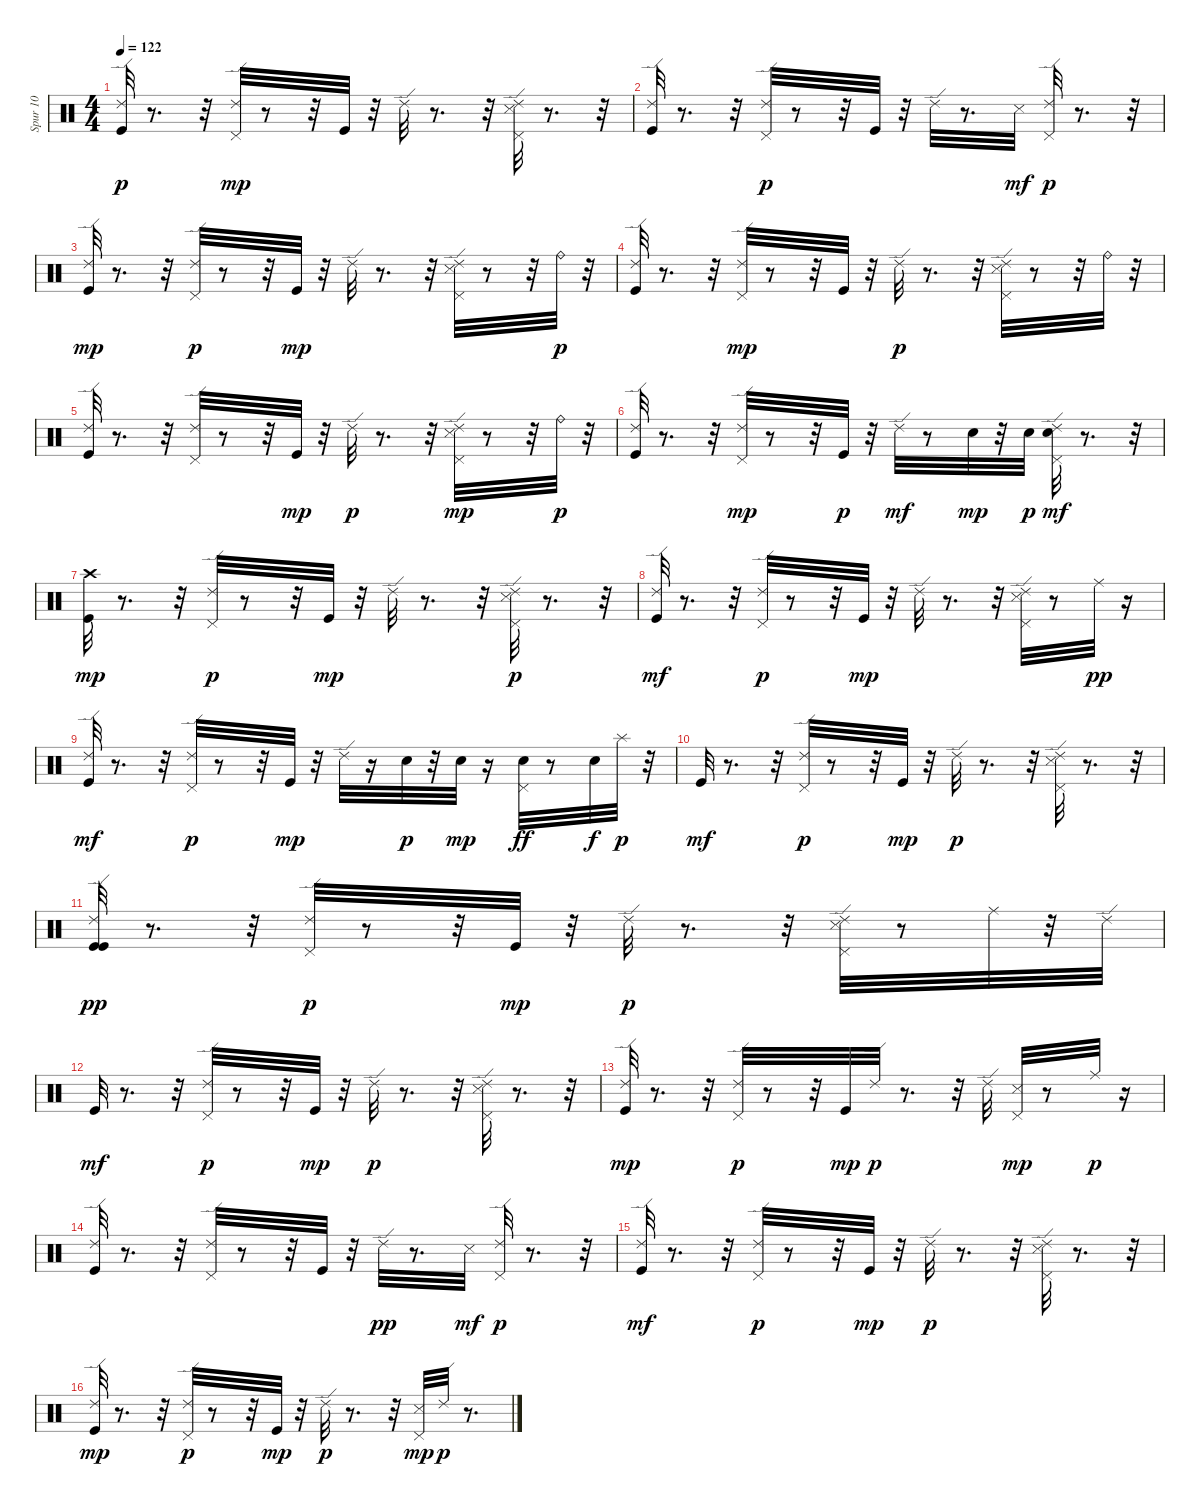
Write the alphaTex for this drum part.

\track ("Spur 10" "Spur 10") {instrument percussion}
\staff {score}
\articulation defaults
\ts (4 4)
\tempo 122
\clef neutral
\ks c
("Kick (hit)" "Ride (edge) 2").32{dy p} r.8{d} r.32 ("Pedal Hi-Hat (hit)" "Ride (edge) 2").32{dy mp} r.8 r.32 "Kick (hit)".32 r.32 "Ride (edge) 2".32 r.8{d} r.32 ("Ride (edge) 2" "Pedal Hi-Hat (hit)" "Snare (side stick) 3").32 r.8{d} r.32 |
("Kick (hit)" "Ride (edge) 2").32 r.8{d} r.32 ("Pedal Hi-Hat (hit)" "Ride (edge) 2").32{dy p} r.8 r.32 "Kick (hit)".32 r.32 "Ride (edge) 2".32 r.8{d} "Snare (side stick) 3".32{dy mf} ("Pedal Hi-Hat (hit)" "Ride (edge) 2").32{dy p} r.8{d} r.32 |
("Kick (hit)" "Ride (edge) 2").32{dy mp} r.8{d} r.32 ("Ride (edge) 2" "Pedal Hi-Hat (hit)").32{dy p} r.8 r.32 "Kick (hit)".32{dy mp} r.32 "Ride (edge) 2".32 r.8{d} r.32 ("Snare (side stick) 3" "Pedal Hi-Hat (hit)" "Ride (edge) 2").32 r.8 r.32 "Ride (bell)".32{dy p} r.32 |
("Kick (hit)" "Ride (edge) 2").32 r.8{d} r.32 ("Pedal Hi-Hat (hit)" "Ride (edge) 2").32{dy mp} r.8 r.32 "Kick (hit)".32 r.32 "Ride (edge) 2".32{dy p} r.8{d} r.32 ("Snare (side stick) 3" "Pedal Hi-Hat (hit)" "Ride (edge) 2").32 r.8 r.32 "Ride (bell)".32 r.32 |
("Kick (hit)" "Ride (edge) 2").32 r.8{d} r.32 ("Pedal Hi-Hat (hit)" "Ride (edge) 2").32 r.8 r.32 "Kick (hit)".32{dy mp} r.32 "Ride (edge) 2".32{dy p} r.8{d} r.32 ("Snare (side stick) 3" "Pedal Hi-Hat (hit)" "Ride (edge) 2").32{dy mp} r.8 r.32 "Ride (bell)".32{dy p} r.32 |
("Kick (hit)" "Ride (edge) 2").32 r.8{d} r.32 ("Ride (edge) 2" "Pedal Hi-Hat (hit)").32{dy mp} r.8 r.32 "Kick (hit)".32{dy p} r.32 "Ride (edge) 2".32{dy mf} r.8 "Electric Snare (hit)".32{dy mp} r.32 "Electric Snare (hit)".32{dy p} ("Pedal Hi-Hat (hit)" "Electric Snare (hit)" "Ride (edge) 2").32{dy mf} r.8{d} r.32 |
("Kick (hit)" "Crash high (hit)").32{dy mp} r.8{d} r.32 ("Pedal Hi-Hat (hit)" "Ride (edge) 2").32{dy p} r.8 r.32 "Kick (hit)".32{dy mp} r.32 "Ride (edge) 2".32 r.8{d} r.32 ("Snare (side stick) 3" "Pedal Hi-Hat (hit)" "Ride (edge) 2").32{dy p} r.8{d} r.32 |
("Ride (edge) 2" "Kick (hit)").32{dy mf} r.8{d} r.32 ("Pedal Hi-Hat (hit)" "Ride (edge) 2").32{dy p} r.8 r.32 "Kick (hit)".32{dy mp} r.32 "Ride (edge) 2".32 r.8{d} r.32 ("Snare (side stick) 3" "Pedal Hi-Hat (hit)" "Ride (edge) 2").32 r.8 "Ride (middle)".32{dy pp} r.16 |
("Ride (edge) 2" "Kick (hit)").32{dy mf} r.8{d} r.32 ("Pedal Hi-Hat (hit)" "Ride (edge) 2").32{dy p} r.8 r.32 "Kick (hit)".32{dy mp} r.32 "Ride (edge) 2".32 r.16 "Electric Snare (hit)".32{dy p} r.32 "Electric Snare (hit)".32{dy mp} r.16 ("Pedal Hi-Hat (hit)" "Electric Snare (hit)").32{dy ff} r.8 "Electric Snare (hit)".32{dy f} "Splash (hit)".32{dy p} r.32 |
"Kick (hit)".32{dy mf} r.8{d} r.32 ("Pedal Hi-Hat (hit)" "Ride (edge) 2").32{dy p} r.8 r.32 "Kick (hit)".32{dy mp} r.32 "Ride (edge) 2".32{dy p} r.8{d} r.32 ("Snare (side stick) 3" "Pedal Hi-Hat (hit)" "Ride (edge) 2").32 r.8{d} r.32 |
("Kick (hit)" "Kick (hit)" "Ride (edge) 2").32{dy pp} r.8{d} r.32 ("Pedal Hi-Hat (hit)" "Ride (edge) 2").32{dy p} r.8 r.32 "Kick (hit)".32{dy mp} r.32 "Ride (edge) 2".32{dy p} r.8{d} r.32 ("Snare (side stick) 3" "Pedal Hi-Hat (hit)" "Ride (edge) 2").32 r.8 "Ride (middle)".32 r.32 "Ride (edge) 2".32 |
"Kick (hit)".32{dy mf} r.8{d} r.32 ("Ride (edge) 2" "Pedal Hi-Hat (hit)").32{dy p} r.8 r.32 "Kick (hit)".32{dy mp} r.32 "Ride (edge) 2".32{dy p} r.8{d} r.32 ("Snare (side stick) 3" "Pedal Hi-Hat (hit)" "Ride (edge) 2").32 r.8{d} r.32 |
("Kick (hit)" "Ride (edge) 2").32{dy mp} r.8{d} r.32 ("Pedal Hi-Hat (hit)" "Ride (edge) 2").32{dy p} r.8 r.32 "Kick (hit)".32{dy mp} "Ride (edge) 2".32{dy p} r.8{d} r.32 "Ride (edge) 2".32 ("Pedal Hi-Hat (hit)" "Snare (side stick) 3").32{dy mp} r.8 "Ride (middle)".32{dy p} r.16 |
("Kick (hit)" "Ride (edge) 2").32 r.8{d} r.32 ("Pedal Hi-Hat (hit)" "Ride (edge) 2").32 r.8 r.32 "Kick (hit)".32 r.32 "Ride (edge) 2".32{dy pp} r.8{d} "Snare (side stick) 3".32{dy mf} ("Pedal Hi-Hat (hit)" "Ride (edge) 2").32{dy p} r.8{d} r.32 |
("Ride (edge) 2" "Kick (hit)").32{dy mf} r.8{d} r.32 ("Pedal Hi-Hat (hit)" "Ride (edge) 2").32{dy p} r.8 r.32 "Kick (hit)".32{dy mp} r.32 "Ride (edge) 2".32{dy p} r.8{d} r.32 ("Snare (side stick) 3" "Pedal Hi-Hat (hit)" "Ride (edge) 2").32 r.8{d} r.32 |
("Kick (hit)" "Ride (edge) 2").32{dy mp} r.8{d} r.32 ("Pedal Hi-Hat (hit)" "Ride (edge) 2").32{dy p} r.8 r.32 "Kick (hit)".32{dy mp} r.32 "Ride (edge) 2".32{dy p} r.8{d} r.32 ("Snare (side stick) 3" "Pedal Hi-Hat (hit)").32{dy mp} "Ride (edge) 2".32{dy p} r.8{d}
